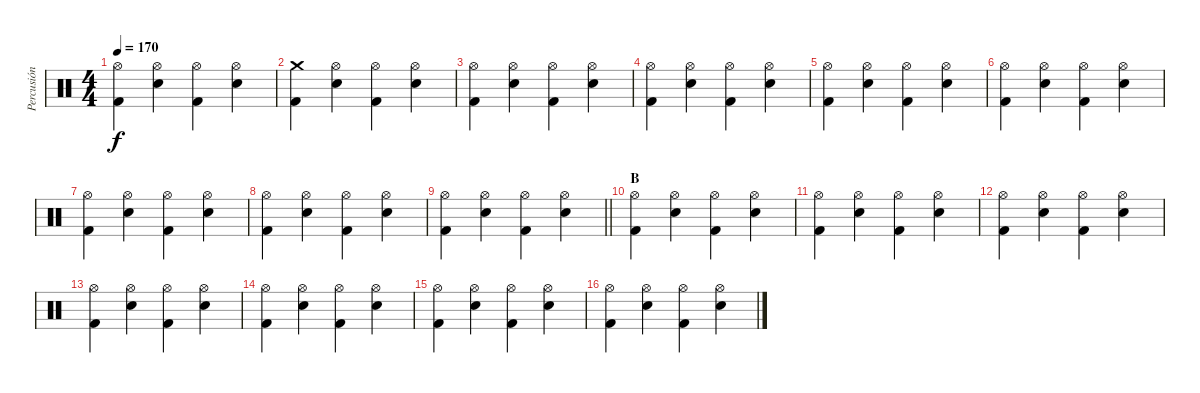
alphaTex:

\track ("Percusión" "Percusión") {instrument percussion}
\staff {score}
\articulation defaults
\ts (4 4)
\tempo 170
\clef neutral
\ks c
("Hi-Hat (open)" "Kick (hit) 2").4{dy f} ("Hi-Hat (open)" "Snare (hit) 2").4 ("Hi-Hat (open)" "Kick (hit) 2").4 ("Hi-Hat (open)" "Snare (hit) 2").4 |
("Crash medium (hit)" "Kick (hit) 2").4 ("Hi-Hat (open)" "Snare (hit) 2").4 ("Hi-Hat (open)" "Kick (hit) 2").4 ("Hi-Hat (open)" "Snare (hit) 2").4 |
("Hi-Hat (open)" "Kick (hit) 2").4 ("Hi-Hat (open)" "Snare (hit) 2").4 ("Hi-Hat (open)" "Kick (hit) 2").4 ("Hi-Hat (open)" "Snare (hit) 2").4 |
("Hi-Hat (open)" "Kick (hit) 2").4 ("Hi-Hat (open)" "Snare (hit) 2").4 ("Hi-Hat (open)" "Kick (hit) 2").4 ("Hi-Hat (open)" "Snare (hit) 2").4 |
("Hi-Hat (open)" "Kick (hit) 2").4 ("Hi-Hat (open)" "Snare (hit) 2").4 ("Hi-Hat (open)" "Kick (hit) 2").4 ("Hi-Hat (open)" "Snare (hit) 2").4 |
("Hi-Hat (open)" "Kick (hit) 2").4 ("Hi-Hat (open)" "Snare (hit) 2").4 ("Hi-Hat (open)" "Kick (hit) 2").4 ("Hi-Hat (open)" "Snare (hit) 2").4 |
("Hi-Hat (open)" "Kick (hit) 2").4 ("Hi-Hat (open)" "Snare (hit) 2").4 ("Hi-Hat (open)" "Kick (hit) 2").4 ("Hi-Hat (open)" "Snare (hit) 2").4 |
("Hi-Hat (open)" "Kick (hit) 2").4 ("Hi-Hat (open)" "Snare (hit) 2").4 ("Hi-Hat (open)" "Kick (hit) 2").4 ("Hi-Hat (open)" "Snare (hit) 2").4 |
\barLineRight lightlight
("Hi-Hat (open)" "Kick (hit) 2").4 ("Hi-Hat (open)" "Snare (hit) 2").4 ("Hi-Hat (open)" "Kick (hit) 2").4 ("Hi-Hat (open)" "Snare (hit) 2").4 |
\section ("" "B")
("Hi-Hat (open)" "Kick (hit) 2").4 ("Hi-Hat (open)" "Snare (hit) 2").4 ("Hi-Hat (open)" "Kick (hit) 2").4 ("Hi-Hat (open)" "Snare (hit) 2").4 |
("Hi-Hat (open)" "Kick (hit) 2").4 ("Hi-Hat (open)" "Snare (hit) 2").4 ("Hi-Hat (open)" "Kick (hit) 2").4 ("Hi-Hat (open)" "Snare (hit) 2").4 |
("Hi-Hat (open)" "Kick (hit) 2").4 ("Hi-Hat (open)" "Snare (hit) 2").4 ("Hi-Hat (open)" "Kick (hit) 2").4 ("Hi-Hat (open)" "Snare (hit) 2").4 |
("Hi-Hat (open)" "Kick (hit) 2").4 ("Hi-Hat (open)" "Snare (hit) 2").4 ("Hi-Hat (open)" "Kick (hit) 2").4 ("Hi-Hat (open)" "Snare (hit) 2").4 |
("Hi-Hat (open)" "Kick (hit) 2").4 ("Hi-Hat (open)" "Snare (hit) 2").4 ("Hi-Hat (open)" "Kick (hit) 2").4 ("Hi-Hat (open)" "Snare (hit) 2").4 |
("Hi-Hat (open)" "Kick (hit) 2").4 ("Hi-Hat (open)" "Snare (hit) 2").4 ("Hi-Hat (open)" "Kick (hit) 2").4 ("Hi-Hat (open)" "Snare (hit) 2").4 |
("Hi-Hat (open)" "Kick (hit) 2").4 ("Hi-Hat (open)" "Snare (hit) 2").4 ("Hi-Hat (open)" "Kick (hit) 2").4 ("Hi-Hat (open)" "Snare (hit) 2").4
